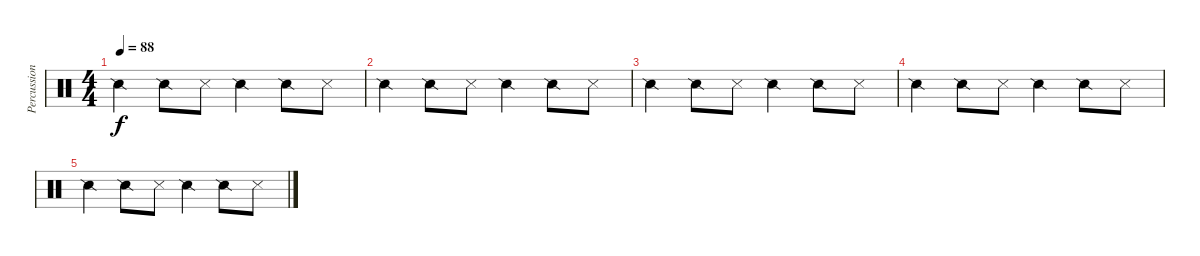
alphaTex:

\track ("Percussion" "Percussion") {instrument percussion}
\staff {score}
\articulation defaults
\ts (4 4)
\tempo 88
\clef neutral
\ks c "Snare (side stick) 2".4{dy f} "Snare (side stick) 2".8 "Snare (side stick) 3".8 "Snare (side stick) 2".4 "Snare (side stick) 2".8 "Snare (side stick) 3".8
|
"Snare (side stick) 2".4 "Snare (side stick) 2".8 "Snare (side stick) 3".8 "Snare (side stick) 2".4 "Snare (side stick) 2".8 "Snare (side stick) 3".8 |
"Snare (side stick) 2".4 "Snare (side stick) 2".8 "Snare (side stick) 3".8 "Snare (side stick) 2".4 "Snare (side stick) 2".8 "Snare (side stick) 3".8 |
"Snare (side stick) 2".4 "Snare (side stick) 2".8 "Snare (side stick) 3".8 "Snare (side stick) 2".4 "Snare (side stick) 2".8 "Snare (side stick) 3".8 |
"Snare (side stick) 2".4 "Snare (side stick) 2".8 "Snare (side stick) 3".8 "Snare (side stick) 2".4 "Snare (side stick) 2".8 "Snare (side stick) 3".8
